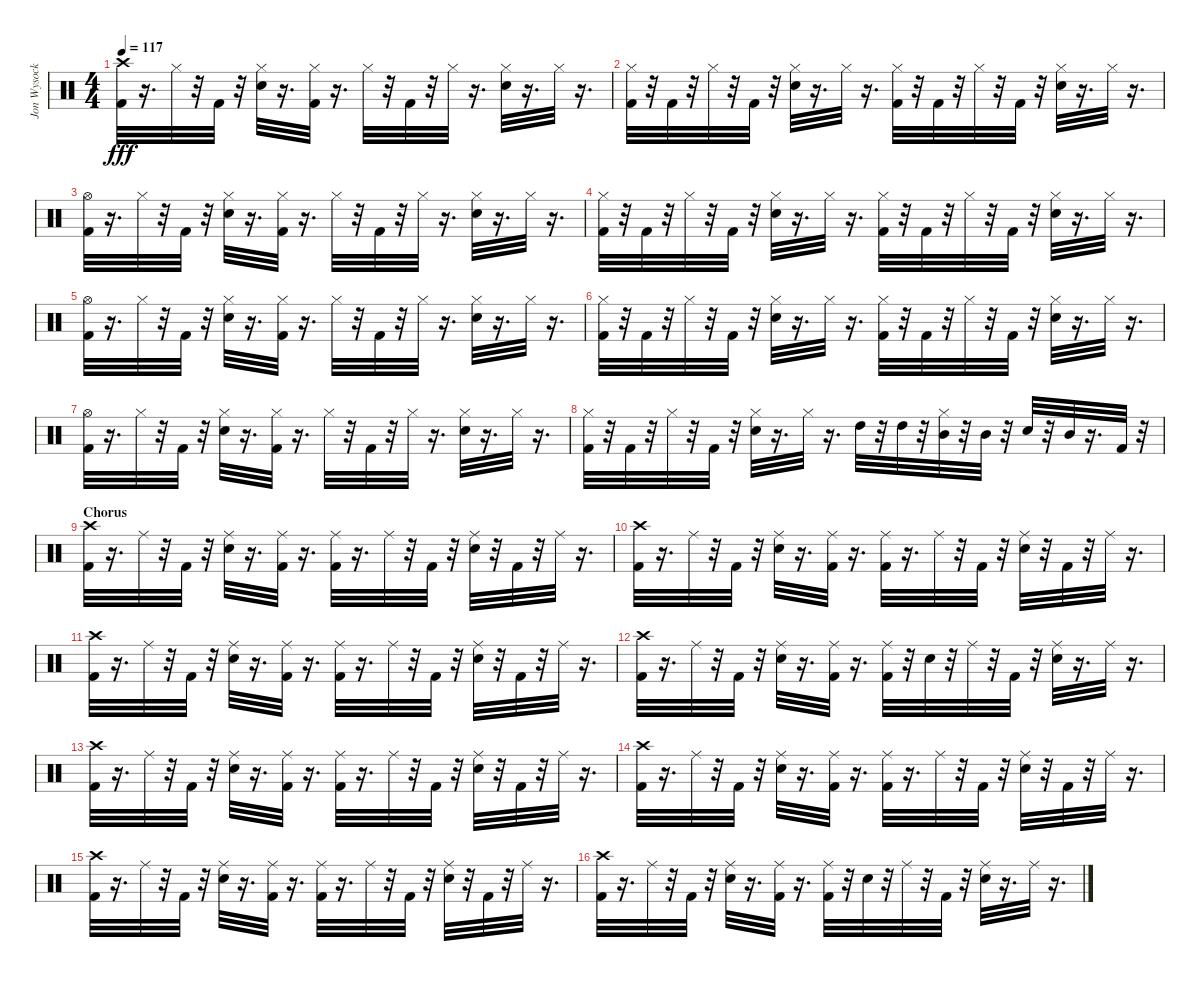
\track ("Jon Wysocki - Drums" "Jon Wysock") {instrument percussion}
\staff {score}
\articulation defaults
\ts (4 4)
\tempo 117
\clef neutral
\ks c
("Crash high (hit)" "Kick (hit) 2").32{dy fff} r.16{d} "Hi-Hat (closed)".32 r.32 "Kick (hit) 2".32 r.32 ("Electric Snare (hit)" "Hi-Hat (closed)").32 r.16{d} ("Hi-Hat (closed)" "Kick (hit) 2").32 r.16{d} "Hi-Hat (closed)".32 r.32 "Kick (hit) 2".32 r.32 "Hi-Hat (closed)".32 r.16{d} ("Electric Snare (hit)" "Hi-Hat (closed)").32 r.16{d} "Hi-Hat (closed)".32 r.16{d} |
("Hi-Hat (closed)" "Kick (hit) 2").32 r.32 "Kick (hit) 2".32 r.32 "Hi-Hat (closed)".32 r.32 "Kick (hit) 2".32 r.32 ("Hi-Hat (closed)" "Electric Snare (hit)").32 r.16{d} "Hi-Hat (closed)".32 r.16{d} ("Hi-Hat (closed)" "Kick (hit) 2").32 r.32 "Kick (hit) 2".32 r.32 "Hi-Hat (closed)".32 r.32 "Kick (hit) 2".32 r.32 ("Hi-Hat (closed)" "Electric Snare (hit)").32 r.16{d} "Hi-Hat (closed)".32 r.16{d} |
("Kick (hit) 2" "Hi-Hat (open)").32 r.16{d} "Hi-Hat (closed)".32 r.32 "Kick (hit) 2".32 r.32 ("Electric Snare (hit)" "Hi-Hat (closed)").32 r.16{d} ("Hi-Hat (closed)" "Kick (hit) 2").32 r.16{d} "Hi-Hat (closed)".32 r.32 "Kick (hit) 2".32 r.32 "Hi-Hat (closed)".32 r.16{d} ("Electric Snare (hit)" "Hi-Hat (closed)").32 r.16{d} "Hi-Hat (closed)".32 r.16{d} |
("Hi-Hat (closed)" "Kick (hit) 2").32 r.32 "Kick (hit) 2".32 r.32 "Hi-Hat (closed)".32 r.32 "Kick (hit) 2".32 r.32 ("Hi-Hat (closed)" "Electric Snare (hit)").32 r.16{d} "Hi-Hat (closed)".32 r.16{d} ("Hi-Hat (closed)" "Kick (hit) 2").32 r.32 "Kick (hit) 2".32 r.32 "Hi-Hat (closed)".32 r.32 "Kick (hit) 2".32 r.32 ("Hi-Hat (closed)" "Electric Snare (hit)").32 r.16{d} "Hi-Hat (closed)".32 r.16{d} |
("Kick (hit) 2" "Hi-Hat (open)").32 r.16{d} "Hi-Hat (closed)".32 r.32 "Kick (hit) 2".32 r.32 ("Electric Snare (hit)" "Hi-Hat (closed)").32 r.16{d} ("Hi-Hat (closed)" "Kick (hit) 2").32 r.16{d} "Hi-Hat (closed)".32 r.32 "Kick (hit) 2".32 r.32 "Hi-Hat (closed)".32 r.16{d} ("Electric Snare (hit)" "Hi-Hat (closed)").32 r.16{d} "Hi-Hat (closed)".32 r.16{d} |
("Hi-Hat (closed)" "Kick (hit) 2").32 r.32 "Kick (hit) 2".32 r.32 "Hi-Hat (closed)".32 r.32 "Kick (hit) 2".32 r.32 ("Hi-Hat (closed)" "Electric Snare (hit)").32 r.16{d} "Hi-Hat (closed)".32 r.16{d} ("Hi-Hat (closed)" "Kick (hit) 2").32 r.32 "Kick (hit) 2".32 r.32 "Hi-Hat (closed)".32 r.32 "Kick (hit) 2".32 r.32 ("Hi-Hat (closed)" "Electric Snare (hit)").32 r.16{d} "Hi-Hat (closed)".32 r.16{d} |
("Kick (hit) 2" "Hi-Hat (open)").32 r.16{d} "Hi-Hat (closed)".32 r.32 "Kick (hit) 2".32 r.32 ("Electric Snare (hit)" "Hi-Hat (closed)").32 r.16{d} ("Hi-Hat (closed)" "Kick (hit) 2").32 r.16{d} "Hi-Hat (closed)".32 r.32 "Kick (hit) 2".32 r.32 "Hi-Hat (closed)".32 r.16{d} ("Electric Snare (hit)" "Hi-Hat (closed)").32 r.16{d} "Hi-Hat (closed)".32 r.16{d} |
("Hi-Hat (closed)" "Kick (hit) 2").32 r.32 "Kick (hit) 2".32 r.32 "Hi-Hat (closed)".32 r.32 "Kick (hit) 2".32 r.32 ("Hi-Hat (closed)" "Electric Snare (hit)").32 r.16{d} "Hi-Hat (closed)".32 r.16{d} "High Tom (hit)".32 r.32 "High Tom (hit)".32 r.32 ("Hi-Hat (closed)" "Mid Tom (hit)").32 r.32 "Mid Tom (hit)".32 r.32 "Electric Snare (hit)".32 r.32 "Mid Tom (hit)".32 r.16{d} "Kick (hit) 2".32 r.32 |
\section ("" "Chorus")
("Kick (hit) 2" "Crash high (hit)").32 r.16{d} "Ride (middle)".32 r.32 "Kick (hit) 2".32 r.32 ("Ride (middle)" "Electric Snare (hit)").32 r.16{d} ("Ride (middle)" "Kick (hit) 2").32 r.16{d} ("Ride (middle)" "Kick (hit) 2").32 r.16{d} "Ride (middle)".32 r.32 "Kick (hit) 2".32 r.32 ("Ride (middle)" "Electric Snare (hit)").32 r.32 "Kick (hit) 2".32 r.32 "Ride (middle)".32 r.16{d} |
("Crash high (hit)" "Kick (hit) 2").32 r.16{d} "Ride (middle)".32 r.32 "Kick (hit) 2".32 r.32 ("Electric Snare (hit)" "Ride (middle)").32 r.16{d} ("Kick (hit) 2" "Ride (middle)").32 r.16{d} ("Kick (hit) 2" "Ride (middle)").32 r.16{d} "Ride (middle)".32 r.32 "Kick (hit) 2".32 r.32 ("Electric Snare (hit)" "Ride (middle)").32 r.32 "Kick (hit) 2".32 r.32 "Ride (middle)".32 r.16{d} |
("Crash high (hit)" "Kick (hit) 2").32 r.16{d} "Ride (middle)".32 r.32 "Kick (hit) 2".32 r.32 ("Electric Snare (hit)" "Ride (middle)").32 r.16{d} ("Kick (hit) 2" "Ride (middle)").32 r.16{d} ("Kick (hit) 2" "Ride (middle)").32 r.16{d} "Ride (middle)".32 r.32 "Kick (hit) 2".32 r.32 ("Electric Snare (hit)" "Ride (middle)").32 r.32 "Kick (hit) 2".32 r.32 "Ride (middle)".32 r.16{d} |
("Crash high (hit)" "Kick (hit) 2").32 r.16{d} "Ride (middle)".32 r.32 "Kick (hit) 2".32 r.32 ("Ride (middle)" "Electric Snare (hit)").32 r.16{d} ("Ride (middle)" "Kick (hit) 2").32 r.16{d} ("Ride (middle)" "Kick (hit) 2").32 r.32 "Electric Snare (hit)".32 r.32 "Ride (middle)".32 r.32 "Kick (hit) 2".32 r.32 ("Ride (middle)" "Electric Snare (hit)").32 r.16{d} "Ride (middle)".32 r.16{d} |
("Kick (hit) 2" "Crash high (hit)").32 r.16{d} "Ride (middle)".32 r.32 "Kick (hit) 2".32 r.32 ("Ride (middle)" "Electric Snare (hit)").32 r.16{d} ("Ride (middle)" "Kick (hit) 2").32 r.16{d} ("Ride (middle)" "Kick (hit) 2").32 r.16{d} "Ride (middle)".32 r.32 "Kick (hit) 2".32 r.32 ("Ride (middle)" "Electric Snare (hit)").32 r.32 "Kick (hit) 2".32 r.32 "Ride (middle)".32 r.16{d} |
("Crash high (hit)" "Kick (hit) 2").32 r.16{d} "Ride (middle)".32 r.32 "Kick (hit) 2".32 r.32 ("Electric Snare (hit)" "Ride (middle)").32 r.16{d} ("Kick (hit) 2" "Ride (middle)").32 r.16{d} ("Kick (hit) 2" "Ride (middle)").32 r.16{d} "Ride (middle)".32 r.32 "Kick (hit) 2".32 r.32 ("Electric Snare (hit)" "Ride (middle)").32 r.32 "Kick (hit) 2".32 r.32 "Ride (middle)".32 r.16{d} |
("Crash high (hit)" "Kick (hit) 2").32 r.16{d} "Ride (middle)".32 r.32 "Kick (hit) 2".32 r.32 ("Electric Snare (hit)" "Ride (middle)").32 r.16{d} ("Kick (hit) 2" "Ride (middle)").32 r.16{d} ("Kick (hit) 2" "Ride (middle)").32 r.16{d} "Ride (middle)".32 r.32 "Kick (hit) 2".32 r.32 ("Electric Snare (hit)" "Ride (middle)").32 r.32 "Kick (hit) 2".32 r.32 "Ride (middle)".32 r.16{d} |
("Crash high (hit)" "Kick (hit) 2").32 r.16{d} "Ride (middle)".32 r.32 "Kick (hit) 2".32 r.32 ("Ride (middle)" "Electric Snare (hit)").32 r.16{d} ("Ride (middle)" "Kick (hit) 2").32 r.16{d} ("Ride (middle)" "Kick (hit) 2").32 r.32 "Electric Snare (hit)".32 r.32 "Ride (middle)".32 r.32 "Kick (hit) 2".32 r.32 ("Ride (middle)" "Electric Snare (hit)").32 r.16{d} "Ride (middle)".32 r.16{d}
